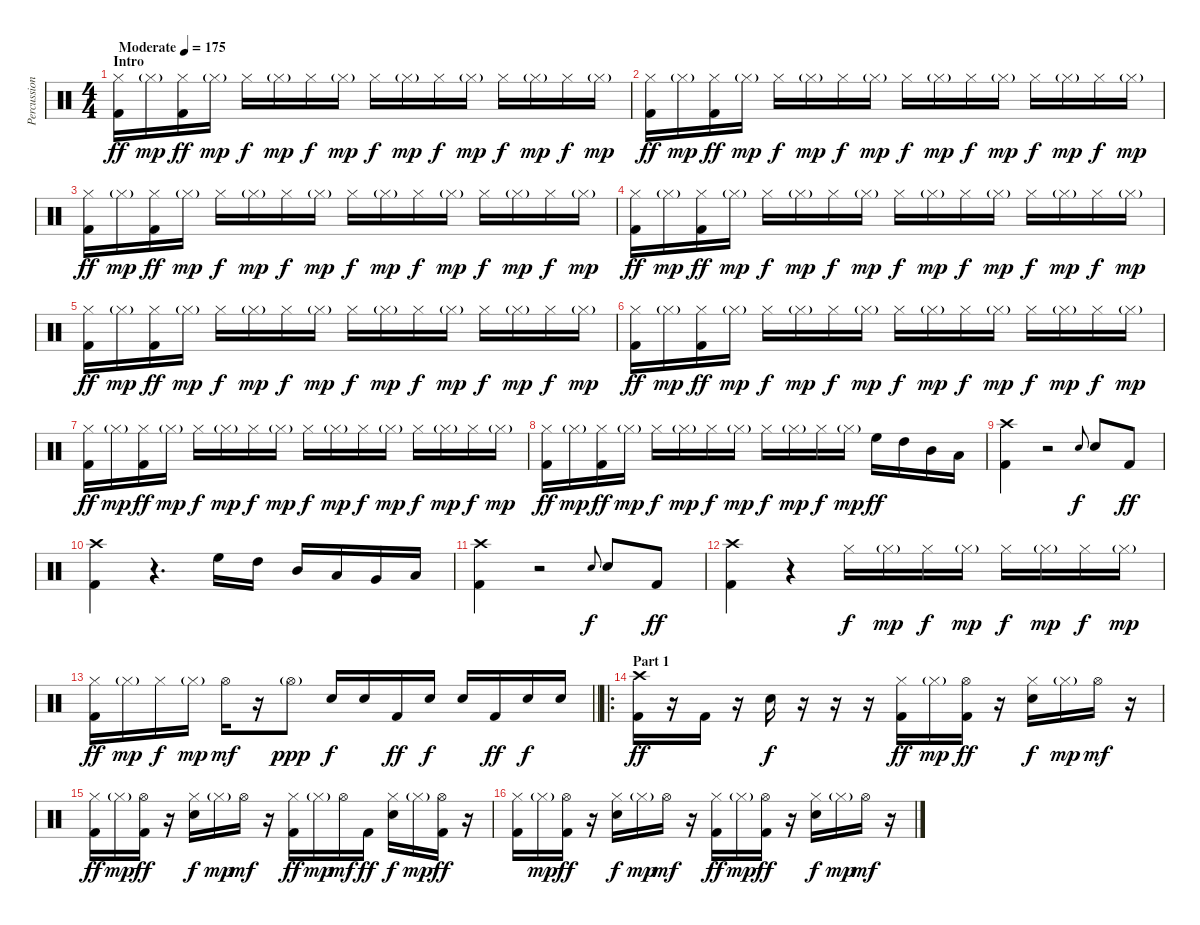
\track ("Percussion" "Percussion") {instrument percussion}
\staff {score}
\articulation defaults
\ts (4 4)
\section ("" "Intro")
\tempo (175 "Moderate")
\clef neutral
\ks c
("Hi-Hat (closed)" "Kick (hit) 2").16{dy ff} "Hi-Hat (closed)"{g}.16{dy mp} ("Hi-Hat (closed)" "Kick (hit) 2").16{dy ff} "Hi-Hat (closed)"{g}.16{dy mp} "Hi-Hat (closed)".16{dy f} "Hi-Hat (closed)"{g}.16{dy mp} "Hi-Hat (closed)".16{dy f} "Hi-Hat (closed)"{g}.16{dy mp} "Hi-Hat (closed)".16{dy f} "Hi-Hat (closed)"{g}.16{dy mp} "Hi-Hat (closed)".16{dy f} "Hi-Hat (closed)"{g}.16{dy mp} "Hi-Hat (closed)".16{dy f} "Hi-Hat (closed)"{g}.16{dy mp} "Hi-Hat (closed)".16{dy f} "Hi-Hat (closed)"{g}.16{dy mp} |
("Hi-Hat (closed)" "Kick (hit) 2").16{dy ff} "Hi-Hat (closed)"{g}.16{dy mp} ("Hi-Hat (closed)" "Kick (hit) 2").16{dy ff} "Hi-Hat (closed)"{g}.16{dy mp} "Hi-Hat (closed)".16{dy f} "Hi-Hat (closed)"{g}.16{dy mp} "Hi-Hat (closed)".16{dy f} "Hi-Hat (closed)"{g}.16{dy mp} "Hi-Hat (closed)".16{dy f} "Hi-Hat (closed)"{g}.16{dy mp} "Hi-Hat (closed)".16{dy f} "Hi-Hat (closed)"{g}.16{dy mp} "Hi-Hat (closed)".16{dy f} "Hi-Hat (closed)"{g}.16{dy mp} "Hi-Hat (closed)".16{dy f} "Hi-Hat (closed)"{g}.16{dy mp} |
("Hi-Hat (closed)" "Kick (hit) 2").16{dy ff} "Hi-Hat (closed)"{g}.16{dy mp} ("Hi-Hat (closed)" "Kick (hit) 2").16{dy ff} "Hi-Hat (closed)"{g}.16{dy mp} "Hi-Hat (closed)".16{dy f} "Hi-Hat (closed)"{g}.16{dy mp} "Hi-Hat (closed)".16{dy f} "Hi-Hat (closed)"{g}.16{dy mp} "Hi-Hat (closed)".16{dy f} "Hi-Hat (closed)"{g}.16{dy mp} "Hi-Hat (closed)".16{dy f} "Hi-Hat (closed)"{g}.16{dy mp} "Hi-Hat (closed)".16{dy f} "Hi-Hat (closed)"{g}.16{dy mp} "Hi-Hat (closed)".16{dy f} "Hi-Hat (closed)"{g}.16{dy mp} |
("Hi-Hat (closed)" "Kick (hit) 2").16{dy ff} "Hi-Hat (closed)"{g}.16{dy mp} ("Hi-Hat (closed)" "Kick (hit) 2").16{dy ff} "Hi-Hat (closed)"{g}.16{dy mp} "Hi-Hat (closed)".16{dy f} "Hi-Hat (closed)"{g}.16{dy mp} "Hi-Hat (closed)".16{dy f} "Hi-Hat (closed)"{g}.16{dy mp} "Hi-Hat (closed)".16{dy f} "Hi-Hat (closed)"{g}.16{dy mp} "Hi-Hat (closed)".16{dy f} "Hi-Hat (closed)"{g}.16{dy mp} "Hi-Hat (closed)".16{dy f} "Hi-Hat (closed)"{g}.16{dy mp} "Hi-Hat (closed)".16{dy f} "Hi-Hat (closed)"{g}.16{dy mp} |
("Hi-Hat (closed)" "Kick (hit) 2").16{dy ff} "Hi-Hat (closed)"{g}.16{dy mp} ("Hi-Hat (closed)" "Kick (hit) 2").16{dy ff} "Hi-Hat (closed)"{g}.16{dy mp} "Hi-Hat (closed)".16{dy f} "Hi-Hat (closed)"{g}.16{dy mp} "Hi-Hat (closed)".16{dy f} "Hi-Hat (closed)"{g}.16{dy mp} "Hi-Hat (closed)".16{dy f} "Hi-Hat (closed)"{g}.16{dy mp} "Hi-Hat (closed)".16{dy f} "Hi-Hat (closed)"{g}.16{dy mp} "Hi-Hat (closed)".16{dy f} "Hi-Hat (closed)"{g}.16{dy mp} "Hi-Hat (closed)".16{dy f} "Hi-Hat (closed)"{g}.16{dy mp} |
("Hi-Hat (closed)" "Kick (hit) 2").16{dy ff} "Hi-Hat (closed)"{g}.16{dy mp} ("Hi-Hat (closed)" "Kick (hit) 2").16{dy ff} "Hi-Hat (closed)"{g}.16{dy mp} "Hi-Hat (closed)".16{dy f} "Hi-Hat (closed)"{g}.16{dy mp} "Hi-Hat (closed)".16{dy f} "Hi-Hat (closed)"{g}.16{dy mp} "Hi-Hat (closed)".16{dy f} "Hi-Hat (closed)"{g}.16{dy mp} "Hi-Hat (closed)".16{dy f} "Hi-Hat (closed)"{g}.16{dy mp} "Hi-Hat (closed)".16{dy f} "Hi-Hat (closed)"{g}.16{dy mp} "Hi-Hat (closed)".16{dy f} "Hi-Hat (closed)"{g}.16{dy mp} |
("Hi-Hat (closed)" "Kick (hit) 2").16{dy ff} "Hi-Hat (closed)"{g}.16{dy mp} ("Hi-Hat (closed)" "Kick (hit) 2").16{dy ff} "Hi-Hat (closed)"{g}.16{dy mp} "Hi-Hat (closed)".16{dy f} "Hi-Hat (closed)"{g}.16{dy mp} "Hi-Hat (closed)".16{dy f} "Hi-Hat (closed)"{g}.16{dy mp} "Hi-Hat (closed)".16{dy f} "Hi-Hat (closed)"{g}.16{dy mp} "Hi-Hat (closed)".16{dy f} "Hi-Hat (closed)"{g}.16{dy mp} "Hi-Hat (closed)".16{dy f} "Hi-Hat (closed)"{g}.16{dy mp} "Hi-Hat (closed)".16{dy f} "Hi-Hat (closed)"{g}.16{dy mp} |
("Hi-Hat (closed)" "Kick (hit) 2").16{dy ff} "Hi-Hat (closed)"{g}.16{dy mp} ("Hi-Hat (closed)" "Kick (hit) 2").16{dy ff} "Hi-Hat (closed)"{g}.16{dy mp} "Hi-Hat (closed)".16{dy f} "Hi-Hat (closed)"{g}.16{dy mp} "Hi-Hat (closed)".16{dy f} "Hi-Hat (closed)"{g}.16{dy mp} "Hi-Hat (closed)".16{dy f} "Hi-Hat (closed)"{g}.16{dy mp} "Hi-Hat (closed)".16{dy f} "Hi-Hat (closed)"{g}.16{dy mp} "High Floor Tom (hit)".16{dy ff} "High Tom (hit)".16 "Mid Tom (hit)".16 "Low Tom (hit)".16 |
("Crash high (hit)" "Kick (hit) 2").4 r.2 "Electric Snare (hit)".8{gr onbeat dy f} "Electric Snare (hit)".8 "Kick (hit) 2".8{dy ff} |
("Crash high (hit)" "Kick (hit) 2").4 r.4{d} "High Floor Tom (hit)".16 "High Tom (hit)".16 "Mid Tom (hit)".16 "Low Tom (hit)".16 "Very Low Tom (hit)".16 "Low Floor Tom (hit)".16 |
("Crash high (hit)" "Kick (hit) 2").4 r.2 "Electric Snare (hit)".8{gr onbeat dy f} "Electric Snare (hit)".8 "Kick (hit) 2".8{dy ff} |
("Crash high (hit)" "Kick (hit) 2").4 r.4 "Hi-Hat (closed)".16{dy f} "Hi-Hat (closed)"{g}.16{dy mp} "Hi-Hat (closed)".16{dy f} "Hi-Hat (closed)"{g}.16{dy mp} "Hi-Hat (closed)".16{dy f} "Hi-Hat (closed)"{g}.16{dy mp} "Hi-Hat (closed)".16{dy f} "Hi-Hat (closed)"{g}.16{dy mp} |
\barLineRight lightlight
("Hi-Hat (closed)" "Kick (hit) 2").16{dy ff} "Hi-Hat (closed)"{g}.16{dy mp} "Hi-Hat (closed)".16{dy f} "Hi-Hat (closed)"{g}.16{dy mp} "Hi-Hat (open)".16{dy mf} r.16 "Hi-Hat (open)"{g}.8{dy ppp} "Electric Snare (hit)".16{dy f} "Electric Snare (hit)".16 "Kick (hit) 2".16{dy ff} "Electric Snare (hit)".16{dy f} "Electric Snare (hit)".16 "Kick (hit) 2".16{dy ff} "Electric Snare (hit)".16{dy f} "Electric Snare (hit)".16 |
\ro
\section ("" "Part 1")
("Crash high (hit)" "Kick (hit) 2").16{dy ff} r.16 "Kick (hit) 2".16 r.16 "Electric Snare (hit)".16{dy f} r.16 r.16 r.16 ("Hi-Hat (closed)" "Kick (hit) 2").16{dy ff} "Hi-Hat (closed)"{g}.16{dy mp} ("Hi-Hat (open)" "Kick (hit) 2").16{dy ff} r.16 ("Hi-Hat (closed)" "Electric Snare (hit)").16{dy f} "Hi-Hat (closed)"{g}.16{dy mp} "Hi-Hat (open)".16{dy mf} r.16 |
("Hi-Hat (closed)" "Kick (hit) 2").16{dy ff} "Hi-Hat (closed)"{g}.16{dy mp} ("Hi-Hat (open)" "Kick (hit) 2").16{dy ff} r.16 ("Hi-Hat (closed)" "Electric Snare (hit)").16{dy f} "Hi-Hat (closed)"{g}.16{dy mp} "Hi-Hat (open)".16{dy mf} r.16 ("Hi-Hat (closed)" "Kick (hit) 2").16{dy ff} "Hi-Hat (closed)"{g}.16{dy mp} "Hi-Hat (open)".16{dy mf} "Kick (hit) 2".16{dy ff} ("Hi-Hat (closed)" "Electric Snare (hit)").16{dy f} "Hi-Hat (closed)"{g}.16{dy mp} ("Hi-Hat (open)" "Kick (hit) 2").16{dy ff} r.16 |
("Hi-Hat (closed)" "Kick (hit) 2").16 "Hi-Hat (closed)"{g}.16{dy mp} ("Hi-Hat (open)" "Kick (hit) 2").16{dy ff} r.16 ("Hi-Hat (closed)" "Electric Snare (hit)").16{dy f} "Hi-Hat (closed)"{g}.16{dy mp} "Hi-Hat (open)".16{dy mf} r.16 ("Hi-Hat (closed)" "Kick (hit) 2").16{dy ff} "Hi-Hat (closed)"{g}.16{dy mp} ("Hi-Hat (open)" "Kick (hit) 2").16{dy ff} r.16 ("Hi-Hat (closed)" "Electric Snare (hit)").16{dy f} "Hi-Hat (closed)"{g}.16{dy mp} "Hi-Hat (open)".16{dy mf} r.16
